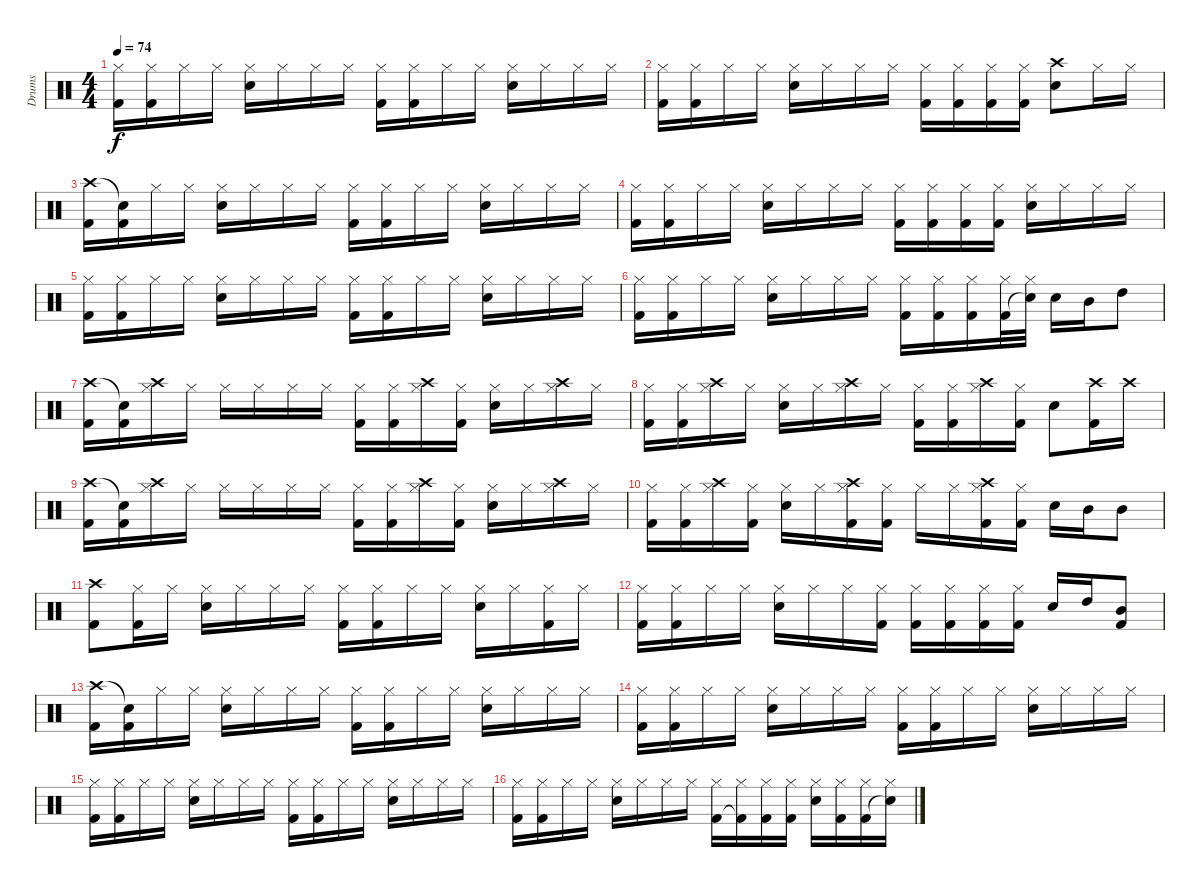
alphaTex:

\track ("Drums" "Drums") {instrument percussion}
\staff {score}
\articulation defaults
\ts (4 4)
\tempo 74
\clef neutral
\ks c
("Hi-Hat (closed)" "Kick (hit) 2").16{dy f} ("Hi-Hat (closed)" "Kick (hit) 2").16 "Hi-Hat (closed)".16 "Hi-Hat (closed)".16 ("Hi-Hat (closed)" "Electric Snare (hit)").16 "Hi-Hat (closed)".16 "Hi-Hat (closed)".16 "Hi-Hat (closed)".16 ("Hi-Hat (closed)" "Kick (hit) 2").16 ("Hi-Hat (closed)" "Kick (hit) 2").16 "Hi-Hat (closed)".16 "Hi-Hat (closed)".16 ("Hi-Hat (closed)" "Electric Snare (hit)").16 "Hi-Hat (closed)".16 "Hi-Hat (closed)".16 "Hi-Hat (closed)".16 |
("Hi-Hat (closed)" "Kick (hit) 2").16 ("Hi-Hat (closed)" "Kick (hit) 2").16 "Hi-Hat (closed)".16 "Hi-Hat (closed)".16 ("Hi-Hat (closed)" "Electric Snare (hit)").16 "Hi-Hat (closed)".16 "Hi-Hat (closed)".16 "Hi-Hat (closed)".16 ("Hi-Hat (closed)" "Kick (hit) 2").16 ("Hi-Hat (closed)" "Kick (hit) 2").16 ("Hi-Hat (closed)" "Kick (hit) 2").16 ("Hi-Hat (closed)" "Kick (hit) 2").16 ("Crash high (hit)" "Electric Snare (hit)").8 "Hi-Hat (closed)".16 "Hi-Hat (closed)".16 |
("Crash high (hit)" "Kick (hit) 2").16 ("Snare (hit)"{t} "Kick (hit) 2").16 "Hi-Hat (closed)".16 "Hi-Hat (closed)".16 ("Hi-Hat (closed)" "Electric Snare (hit)").16 "Hi-Hat (closed)".16 "Hi-Hat (closed)".16 "Hi-Hat (closed)".16 ("Hi-Hat (closed)" "Kick (hit) 2").16 ("Hi-Hat (closed)" "Kick (hit) 2").16 "Hi-Hat (closed)".16 "Hi-Hat (closed)".16 ("Hi-Hat (closed)" "Electric Snare (hit)").16 "Hi-Hat (closed)".16 "Hi-Hat (closed)".16 "Hi-Hat (closed)".16 |
("Hi-Hat (closed)" "Kick (hit) 2").16 ("Hi-Hat (closed)" "Kick (hit) 2").16 "Hi-Hat (closed)".16 "Hi-Hat (closed)".16 ("Hi-Hat (closed)" "Electric Snare (hit)").16 "Hi-Hat (closed)".16 "Hi-Hat (closed)".16 "Hi-Hat (closed)".16 ("Hi-Hat (closed)" "Kick (hit) 2").16 ("Hi-Hat (closed)" "Kick (hit) 2").16 ("Hi-Hat (closed)" "Kick (hit) 2").16 ("Hi-Hat (closed)" "Kick (hit) 2").16 ("Hi-Hat (closed)" "Electric Snare (hit)").16 "Hi-Hat (closed)".16 "Hi-Hat (closed)".16 "Hi-Hat (closed)".16 |
("Hi-Hat (closed)" "Kick (hit) 2").16 ("Hi-Hat (closed)" "Kick (hit) 2").16 "Hi-Hat (closed)".16 "Hi-Hat (closed)".16 ("Hi-Hat (closed)" "Electric Snare (hit)").16 "Hi-Hat (closed)".16 "Hi-Hat (closed)".16 "Hi-Hat (closed)".16 ("Hi-Hat (closed)" "Kick (hit) 2").16 ("Hi-Hat (closed)" "Kick (hit) 2").16 "Hi-Hat (closed)".16 "Hi-Hat (closed)".16 ("Hi-Hat (closed)" "Electric Snare (hit)").16 "Hi-Hat (closed)".16 "Hi-Hat (closed)".16 "Hi-Hat (closed)".16 |
("Hi-Hat (closed)" "Kick (hit) 2").16 ("Hi-Hat (closed)" "Kick (hit) 2").16 "Hi-Hat (closed)".16 "Hi-Hat (closed)".16 ("Hi-Hat (closed)" "Electric Snare (hit)").16 "Hi-Hat (closed)".16 "Hi-Hat (closed)".16 "Hi-Hat (closed)".16 ("Hi-Hat (closed)" "Kick (hit) 2").16 ("Hi-Hat (closed)" "Kick (hit) 2").16 ("Hi-Hat (closed)" "Kick (hit) 2").16 ("Hi-Hat (closed)" "Kick (hit) 2").32 ("Hi-Hat (closed)" "Electric Snare (hit)"{t}).32 "Electric Snare (hit)".16 "Mid Tom (hit)".16 "High Tom (hit)".8 |
("Crash high (hit)" "Kick (hit) 2").16 ("Snare (hit)"{t} "Kick (hit) 2").16 ("Hi-Hat (closed)" "Crash high (hit)").16 "Hi-Hat (closed)".16 "Hi-Hat (closed)".16 "Hi-Hat (closed)".16 "Hi-Hat (closed)".16 "Hi-Hat (closed)".16 ("Hi-Hat (closed)" "Kick (hit) 2").16 ("Hi-Hat (closed)" "Kick (hit) 2").16 ("Hi-Hat (closed)" "Crash high (hit)").16 ("Hi-Hat (closed)" "Kick (hit) 2").16 ("Hi-Hat (closed)" "Electric Snare (hit)").16 "Hi-Hat (closed)".16 ("Hi-Hat (closed)" "Crash high (hit)").16 "Hi-Hat (closed)".16 |
("Hi-Hat (closed)" "Kick (hit) 2").16 ("Hi-Hat (closed)" "Kick (hit) 2").16 ("Hi-Hat (closed)" "Crash high (hit)").16 "Hi-Hat (closed)".16 ("Hi-Hat (closed)" "Electric Snare (hit)").16 "Hi-Hat (closed)".16 ("Hi-Hat (closed)" "Crash high (hit)").16 "Hi-Hat (closed)".16 ("Hi-Hat (closed)" "Kick (hit) 2").16 ("Hi-Hat (closed)" "Kick (hit) 2").16 ("Hi-Hat (closed)" "Crash high (hit)").16 ("Hi-Hat (closed)" "Kick (hit) 2").16 "Electric Snare (hit)".8 ("Kick (hit) 2" "Crash high (hit)").16 "Crash high (hit)".16 |
("Crash high (hit)" "Kick (hit) 2").16 ("Snare (hit)"{t} "Kick (hit) 2").16 ("Hi-Hat (closed)" "Crash high (hit)").16 "Hi-Hat (closed)".16 "Hi-Hat (closed)".16 "Hi-Hat (closed)".16 "Hi-Hat (closed)".16 "Hi-Hat (closed)".16 ("Hi-Hat (closed)" "Kick (hit) 2").16 ("Hi-Hat (closed)" "Kick (hit) 2").16 ("Hi-Hat (closed)" "Crash high (hit)").16 ("Hi-Hat (closed)" "Kick (hit) 2").16 ("Hi-Hat (closed)" "Electric Snare (hit)").16 "Hi-Hat (closed)".16 ("Hi-Hat (closed)" "Crash high (hit)").16 "Hi-Hat (closed)".16 |
("Hi-Hat (closed)" "Kick (hit) 2").16 ("Hi-Hat (closed)" "Kick (hit) 2").16 ("Hi-Hat (closed)" "Crash high (hit)").16 ("Hi-Hat (closed)" "Kick (hit) 2").16 ("Hi-Hat (closed)" "Electric Snare (hit)").16 "Hi-Hat (closed)".16 ("Hi-Hat (closed)" "Crash high (hit)" "Kick (hit) 2").16 ("Hi-Hat (closed)" "Kick (hit) 2").16 "Hi-Hat (closed)".16 "Hi-Hat (closed)".16 ("Hi-Hat (closed)" "Kick (hit) 2" "Crash high (hit)").16 ("Hi-Hat (closed)" "Kick (hit) 2").16 "Electric Snare (hit)".16 "Mid Tom (hit)".16 "Mid Tom (hit)".8 |
("Crash high (hit)" "Kick (hit) 2").8 ("Hi-Hat (closed)" "Kick (hit) 2").16 "Hi-Hat (closed)".16 ("Hi-Hat (closed)" "Electric Snare (hit)").16 "Hi-Hat (closed)".16 "Hi-Hat (closed)".16 "Hi-Hat (closed)".16 ("Hi-Hat (closed)" "Kick (hit) 2").16 ("Hi-Hat (closed)" "Kick (hit) 2").16 "Hi-Hat (closed)".16 "Hi-Hat (closed)".16 ("Hi-Hat (closed)" "Electric Snare (hit)").16 "Hi-Hat (closed)".16 ("Hi-Hat (closed)" "Kick (hit) 2").16 "Hi-Hat (closed)".16 |
("Hi-Hat (closed)" "Kick (hit) 2").16 ("Hi-Hat (closed)" "Kick (hit) 2").16 "Hi-Hat (closed)".16 "Hi-Hat (closed)".16 ("Hi-Hat (closed)" "Electric Snare (hit)").16 "Hi-Hat (closed)".16 "Hi-Hat (closed)".16 ("Hi-Hat (closed)" "Kick (hit) 2").16 ("Hi-Hat (closed)" "Kick (hit) 2").16 ("Hi-Hat (closed)" "Kick (hit) 2").16 ("Hi-Hat (closed)" "Kick (hit) 2").16 ("Hi-Hat (closed)" "Kick (hit) 2").16 "Electric Snare (hit)".16 "High Tom (hit)".16 ("Kick (hit) 2" "Mid Tom (hit)").8 |
("Crash high (hit)" "Kick (hit) 2").16 ("Snare (hit)"{t} "Kick (hit) 2").16 "Hi-Hat (closed)".16 "Hi-Hat (closed)".16 ("Hi-Hat (closed)" "Electric Snare (hit)").16 "Hi-Hat (closed)".16 "Hi-Hat (closed)".16 "Hi-Hat (closed)".16 ("Hi-Hat (closed)" "Kick (hit) 2").16 ("Hi-Hat (closed)" "Kick (hit) 2").16 "Hi-Hat (closed)".16 "Hi-Hat (closed)".16 ("Hi-Hat (closed)" "Electric Snare (hit)").16 "Hi-Hat (closed)".16 "Hi-Hat (closed)".16 "Hi-Hat (closed)".16 |
("Hi-Hat (closed)" "Kick (hit) 2").16 ("Hi-Hat (closed)" "Kick (hit) 2").16 "Hi-Hat (closed)".16 "Hi-Hat (closed)".16 ("Hi-Hat (closed)" "Electric Snare (hit)").16 "Hi-Hat (closed)".16 "Hi-Hat (closed)".16 "Hi-Hat (closed)".16 ("Hi-Hat (closed)" "Kick (hit) 2").16 ("Hi-Hat (closed)" "Kick (hit) 2").16 "Hi-Hat (closed)".16 "Hi-Hat (closed)".16 ("Hi-Hat (closed)" "Electric Snare (hit)").16 "Hi-Hat (closed)".16 "Hi-Hat (closed)".16 "Hi-Hat (closed)".16 |
("Hi-Hat (closed)" "Kick (hit) 2").16 ("Hi-Hat (closed)" "Kick (hit) 2").16 "Hi-Hat (closed)".16 "Hi-Hat (closed)".16 ("Hi-Hat (closed)" "Electric Snare (hit)").16 "Hi-Hat (closed)".16 "Hi-Hat (closed)".16 "Hi-Hat (closed)".16 ("Hi-Hat (closed)" "Kick (hit) 2").16 ("Hi-Hat (closed)" "Kick (hit) 2").16 "Hi-Hat (closed)".16 "Hi-Hat (closed)".16 ("Hi-Hat (closed)" "Electric Snare (hit)").16 "Hi-Hat (closed)".16 "Hi-Hat (closed)".16 "Hi-Hat (closed)".16 |
("Hi-Hat (closed)" "Kick (hit) 2").16 ("Hi-Hat (closed)" "Kick (hit) 2").16 "Hi-Hat (closed)".16 "Hi-Hat (closed)".16 ("Hi-Hat (closed)" "Electric Snare (hit)").16 "Hi-Hat (closed)".16 "Hi-Hat (closed)".16 "Hi-Hat (closed)".16 ("Hi-Hat (closed)" "Kick (hit) 2").16 ("Hi-Hat (closed)" "Kick (hit) 2"{t}).16 ("Hi-Hat (closed)" "Kick (hit) 2").16 ("Hi-Hat (closed)" "Kick (hit) 2").16 ("Hi-Hat (closed)" "Electric Snare (hit)").16 ("Hi-Hat (closed)" "Kick (hit) 2").16 ("Hi-Hat (closed)" "Kick (hit) 2").16 ("Hi-Hat (closed)" "Snare (hit)"{t}).16
